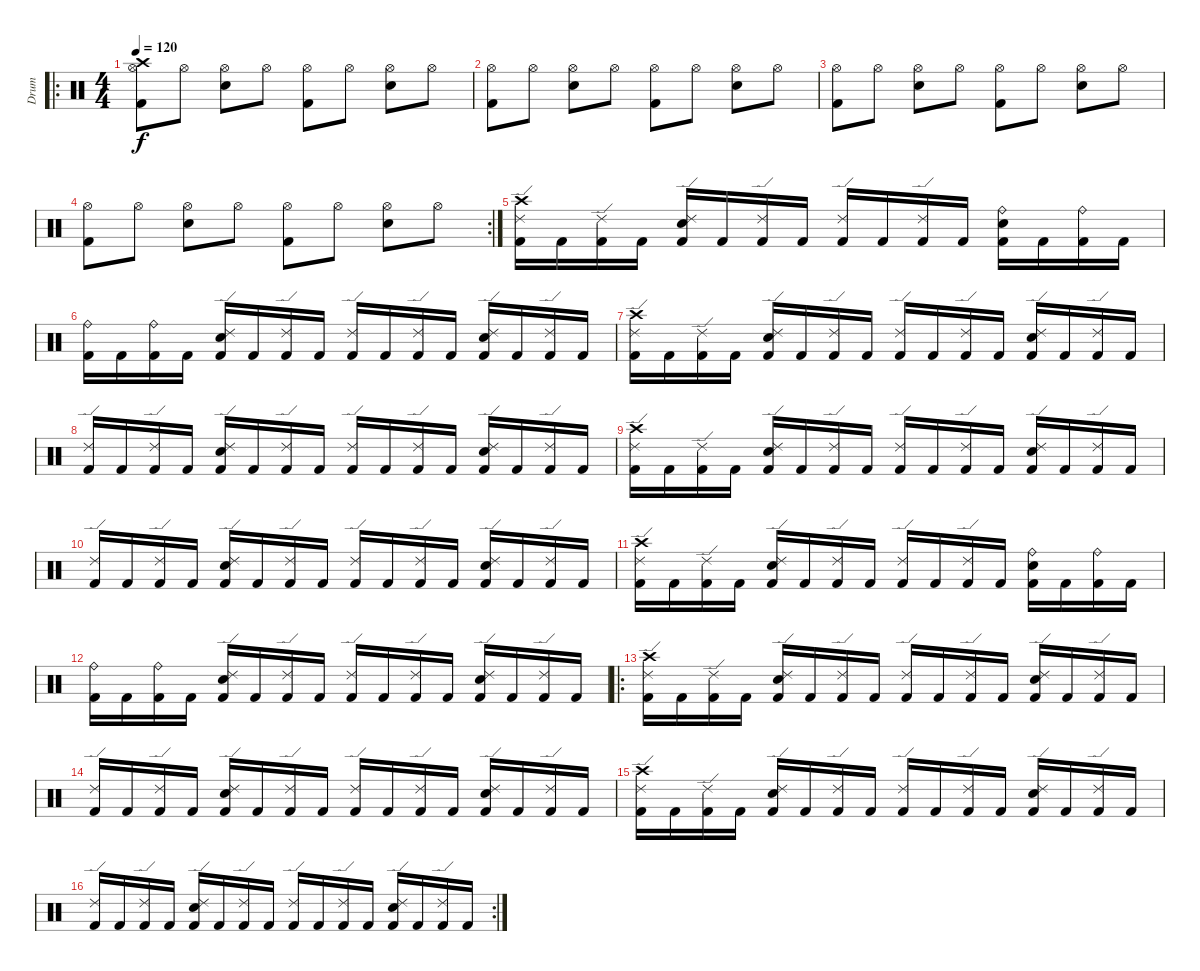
\track ("Drum" "Drum") {instrument percussion}
\staff {score}
\articulation defaults
\ro
\ts (4 4)
\tempo 120
\clef neutral
\ks c
("Hi-Hat (open)" "Crash high (hit)" "Kick (hit) 2").8{dy f} "Hi-Hat (open)".8 ("Hi-Hat (open)" "Snare (hit) 2").8 "Hi-Hat (open)".8 ("Hi-Hat (open)" "Kick (hit) 2").8 "Hi-Hat (open)".8 ("Hi-Hat (open)" "Snare (hit) 2").8 "Hi-Hat (open)".8 |
("Hi-Hat (open)" "Kick (hit) 2").8 "Hi-Hat (open)".8 ("Hi-Hat (open)" "Snare (hit) 2").8 "Hi-Hat (open)".8 ("Hi-Hat (open)" "Kick (hit) 2").8 "Hi-Hat (open)".8 ("Hi-Hat (open)" "Snare (hit) 2").8 "Hi-Hat (open)".8 |
("Hi-Hat (open)" "Kick (hit) 2").8 "Hi-Hat (open)".8 ("Hi-Hat (open)" "Snare (hit) 2").8 "Hi-Hat (open)".8 ("Hi-Hat (open)" "Kick (hit) 2").8 "Hi-Hat (open)".8 ("Hi-Hat (open)" "Snare (hit) 2").8 "Hi-Hat (open)".8 |
\rc 2
("Hi-Hat (open)" "Kick (hit) 2").8 "Hi-Hat (open)".8 ("Hi-Hat (open)" "Snare (hit) 2").8 "Hi-Hat (open)".8 ("Hi-Hat (open)" "Kick (hit) 2").8 "Hi-Hat (open)".8 ("Hi-Hat (open)" "Snare (hit) 2").8 "Hi-Hat (open)".8 |
("Ride (edge) 2" "Crash high (hit)" "Kick (hit) 2").16 "Kick (hit) 2".16 ("Ride (edge) 2" "Kick (hit) 2").16 "Kick (hit) 2".16 ("Ride (edge) 2" "Snare (hit) 2" "Kick (hit) 2").16 "Kick (hit) 2".16 ("Ride (edge) 2" "Kick (hit) 2").16 "Kick (hit) 2".16 ("Ride (edge) 2" "Kick (hit) 2").16 "Kick (hit) 2".16 ("Ride (edge) 2" "Kick (hit) 2").16 "Kick (hit) 2".16 ("Ride (bell)" "Snare (hit) 2" "Kick (hit) 2").16 "Kick (hit) 2".16 ("Ride (bell)" "Kick (hit) 2").16 "Kick (hit) 2".16 |
("Ride (bell)" "Kick (hit) 2").16 "Kick (hit) 2".16 ("Ride (bell)" "Kick (hit) 2").16 "Kick (hit) 2".16 ("Ride (edge) 2" "Snare (hit) 2" "Kick (hit) 2").16 "Kick (hit) 2".16 ("Ride (edge) 2" "Kick (hit) 2").16 "Kick (hit) 2".16 ("Ride (edge) 2" "Kick (hit) 2").16 "Kick (hit) 2".16 ("Ride (edge) 2" "Kick (hit) 2").16 "Kick (hit) 2".16 ("Ride (edge) 2" "Snare (hit) 2" "Kick (hit) 2").16 "Kick (hit) 2".16 ("Ride (edge) 2" "Kick (hit) 2").16 "Kick (hit) 2".16 |
("Ride (edge) 2" "Crash high (hit)" "Kick (hit) 2").16 "Kick (hit) 2".16 ("Ride (edge) 2" "Kick (hit) 2").16 "Kick (hit) 2".16 ("Ride (edge) 2" "Snare (hit) 2" "Kick (hit) 2").16 "Kick (hit) 2".16 ("Ride (edge) 2" "Kick (hit) 2").16 "Kick (hit) 2".16 ("Ride (edge) 2" "Kick (hit) 2").16 "Kick (hit) 2".16 ("Ride (edge) 2" "Kick (hit) 2").16 "Kick (hit) 2".16 ("Ride (edge) 2" "Snare (hit) 2" "Kick (hit) 2").16 "Kick (hit) 2".16 ("Ride (edge) 2" "Kick (hit) 2").16 "Kick (hit) 2".16 |
("Ride (edge) 2" "Kick (hit) 2").16 "Kick (hit) 2".16 ("Ride (edge) 2" "Kick (hit) 2").16 "Kick (hit) 2".16 ("Ride (edge) 2" "Snare (hit) 2" "Kick (hit) 2").16 "Kick (hit) 2".16 ("Ride (edge) 2" "Kick (hit) 2").16 "Kick (hit) 2".16 ("Ride (edge) 2" "Kick (hit) 2").16 "Kick (hit) 2".16 ("Ride (edge) 2" "Kick (hit) 2").16 "Kick (hit) 2".16 ("Ride (edge) 2" "Snare (hit) 2" "Kick (hit) 2").16 "Kick (hit) 2".16 ("Ride (edge) 2" "Kick (hit) 2").16 "Kick (hit) 2".16 |
("Ride (edge) 2" "Crash high (hit)" "Kick (hit) 2").16 "Kick (hit) 2".16 ("Ride (edge) 2" "Kick (hit) 2").16 "Kick (hit) 2".16 ("Ride (edge) 2" "Snare (hit) 2" "Kick (hit) 2").16 "Kick (hit) 2".16 ("Ride (edge) 2" "Kick (hit) 2").16 "Kick (hit) 2".16 ("Ride (edge) 2" "Kick (hit) 2").16 "Kick (hit) 2".16 ("Ride (edge) 2" "Kick (hit) 2").16 "Kick (hit) 2".16 ("Ride (edge) 2" "Snare (hit) 2" "Kick (hit) 2").16 "Kick (hit) 2".16 ("Ride (edge) 2" "Kick (hit) 2").16 "Kick (hit) 2".16 |
("Ride (edge) 2" "Kick (hit) 2").16 "Kick (hit) 2".16 ("Ride (edge) 2" "Kick (hit) 2").16 "Kick (hit) 2".16 ("Ride (edge) 2" "Snare (hit) 2" "Kick (hit) 2").16 "Kick (hit) 2".16 ("Ride (edge) 2" "Kick (hit) 2").16 "Kick (hit) 2".16 ("Ride (edge) 2" "Kick (hit) 2").16 "Kick (hit) 2".16 ("Ride (edge) 2" "Kick (hit) 2").16 "Kick (hit) 2".16 ("Ride (edge) 2" "Snare (hit) 2" "Kick (hit) 2").16 "Kick (hit) 2".16 ("Ride (edge) 2" "Kick (hit) 2").16 "Kick (hit) 2".16 |
("Ride (edge) 2" "Crash high (hit)" "Kick (hit) 2").16 "Kick (hit) 2".16 ("Ride (edge) 2" "Kick (hit) 2").16 "Kick (hit) 2".16 ("Ride (edge) 2" "Snare (hit) 2" "Kick (hit) 2").16 "Kick (hit) 2".16 ("Ride (edge) 2" "Kick (hit) 2").16 "Kick (hit) 2".16 ("Ride (edge) 2" "Kick (hit) 2").16 "Kick (hit) 2".16 ("Ride (edge) 2" "Kick (hit) 2").16 "Kick (hit) 2".16 ("Ride (bell)" "Snare (hit) 2" "Kick (hit) 2").16 "Kick (hit) 2".16 ("Ride (bell)" "Kick (hit) 2").16 "Kick (hit) 2".16 |
("Ride (bell)" "Kick (hit) 2").16 "Kick (hit) 2".16 ("Ride (bell)" "Kick (hit) 2").16 "Kick (hit) 2".16 ("Ride (edge) 2" "Snare (hit) 2" "Kick (hit) 2").16 "Kick (hit) 2".16 ("Ride (edge) 2" "Kick (hit) 2").16 "Kick (hit) 2".16 ("Ride (edge) 2" "Kick (hit) 2").16 "Kick (hit) 2".16 ("Ride (edge) 2" "Kick (hit) 2").16 "Kick (hit) 2".16 ("Ride (edge) 2" "Snare (hit) 2" "Kick (hit) 2").16 "Kick (hit) 2".16 ("Ride (edge) 2" "Kick (hit) 2").16 "Kick (hit) 2".16 |
\ro
("Ride (edge) 2" "Crash high (hit)" "Kick (hit) 2").16 "Kick (hit) 2".16 ("Ride (edge) 2" "Kick (hit) 2").16 "Kick (hit) 2".16 ("Ride (edge) 2" "Snare (hit) 2" "Kick (hit) 2").16 "Kick (hit) 2".16 ("Ride (edge) 2" "Kick (hit) 2").16 "Kick (hit) 2".16 ("Ride (edge) 2" "Kick (hit) 2").16 "Kick (hit) 2".16 ("Ride (edge) 2" "Kick (hit) 2").16 "Kick (hit) 2".16 ("Ride (edge) 2" "Snare (hit) 2" "Kick (hit) 2").16 "Kick (hit) 2".16 ("Ride (edge) 2" "Kick (hit) 2").16 "Kick (hit) 2".16 |
("Ride (edge) 2" "Kick (hit) 2").16 "Kick (hit) 2".16 ("Ride (edge) 2" "Kick (hit) 2").16 "Kick (hit) 2".16 ("Ride (edge) 2" "Snare (hit) 2" "Kick (hit) 2").16 "Kick (hit) 2".16 ("Ride (edge) 2" "Kick (hit) 2").16 "Kick (hit) 2".16 ("Ride (edge) 2" "Kick (hit) 2").16 "Kick (hit) 2".16 ("Ride (edge) 2" "Kick (hit) 2").16 "Kick (hit) 2".16 ("Ride (edge) 2" "Snare (hit) 2" "Kick (hit) 2").16 "Kick (hit) 2".16 ("Ride (edge) 2" "Kick (hit) 2").16 "Kick (hit) 2".16 |
("Ride (edge) 2" "Crash high (hit)" "Kick (hit) 2").16 "Kick (hit) 2".16 ("Ride (edge) 2" "Kick (hit) 2").16 "Kick (hit) 2".16 ("Ride (edge) 2" "Snare (hit) 2" "Kick (hit) 2").16 "Kick (hit) 2".16 ("Ride (edge) 2" "Kick (hit) 2").16 "Kick (hit) 2".16 ("Ride (edge) 2" "Kick (hit) 2").16 "Kick (hit) 2".16 ("Ride (edge) 2" "Kick (hit) 2").16 "Kick (hit) 2".16 ("Ride (edge) 2" "Snare (hit) 2" "Kick (hit) 2").16 "Kick (hit) 2".16 ("Ride (edge) 2" "Kick (hit) 2").16 "Kick (hit) 2".16 |
\rc 2
("Ride (edge) 2" "Kick (hit) 2").16 "Kick (hit) 2".16 ("Ride (edge) 2" "Kick (hit) 2").16 "Kick (hit) 2".16 ("Ride (edge) 2" "Snare (hit) 2" "Kick (hit) 2").16 "Kick (hit) 2".16 ("Ride (edge) 2" "Kick (hit) 2").16 "Kick (hit) 2".16 ("Ride (edge) 2" "Kick (hit) 2").16 "Kick (hit) 2".16 ("Ride (edge) 2" "Kick (hit) 2").16 "Kick (hit) 2".16 ("Ride (edge) 2" "Snare (hit) 2" "Kick (hit) 2").16 "Kick (hit) 2".16 ("Ride (edge) 2" "Kick (hit) 2").16 "Kick (hit) 2".16
